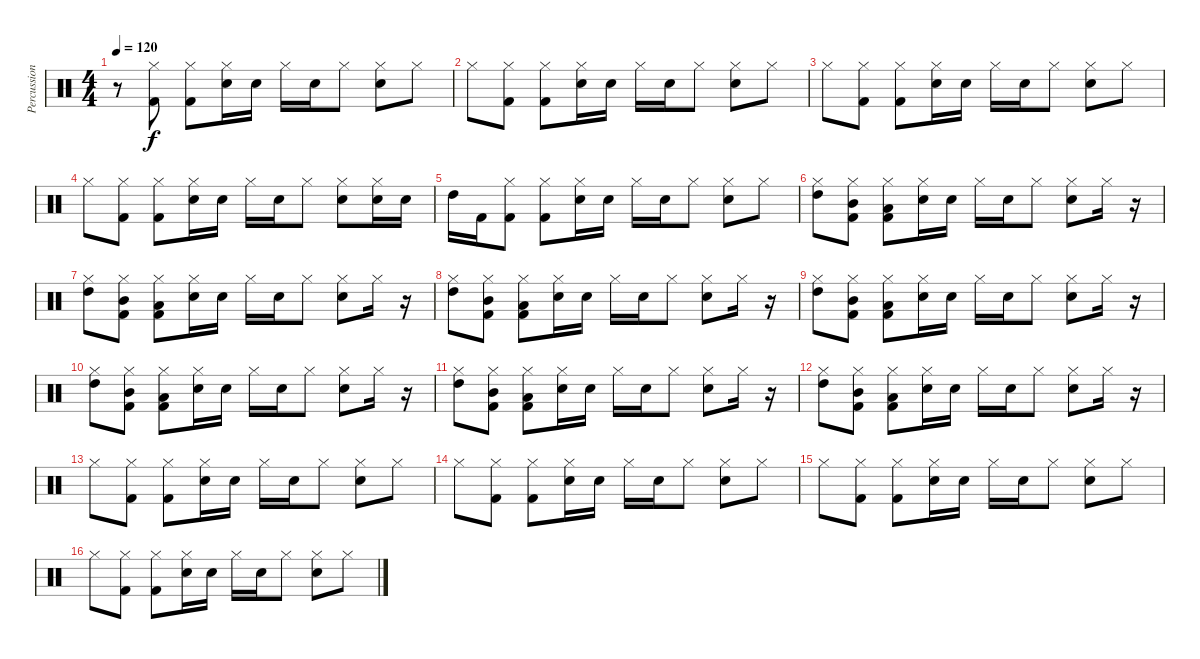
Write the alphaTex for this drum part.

\track ("Percussion" "Percussion") {instrument percussion}
\staff {score}
\articulation defaults
\ts (4 4)
\tempo 120
\clef neutral
\ks c
r.8{dy f} ("Kick (hit) 2" "Hi-Hat (closed)").8 ("Kick (hit) 2" "Hi-Hat (closed)").8 ("Electric Snare (hit)" "Hi-Hat (closed)").16 "Electric Snare (hit)".16 "Hi-Hat (closed)".16 "Electric Snare (hit)".16 "Hi-Hat (closed)".8 ("Electric Snare (hit)" "Hi-Hat (closed)").8 "Hi-Hat (closed)".8 |
"Hi-Hat (closed)".8 ("Kick (hit) 2" "Hi-Hat (closed)").8 ("Kick (hit) 2" "Hi-Hat (closed)").8 ("Electric Snare (hit)" "Hi-Hat (closed)").16 "Electric Snare (hit)".16 "Hi-Hat (closed)".16 "Electric Snare (hit)".16 "Hi-Hat (closed)".8 ("Electric Snare (hit)" "Hi-Hat (closed)").8 "Hi-Hat (closed)".8 |
"Hi-Hat (closed)".8 ("Kick (hit) 2" "Hi-Hat (closed)").8 ("Kick (hit) 2" "Hi-Hat (closed)").8 ("Electric Snare (hit)" "Hi-Hat (closed)").16 "Electric Snare (hit)".16 "Hi-Hat (closed)".16 "Electric Snare (hit)".16 "Hi-Hat (closed)".8 ("Electric Snare (hit)" "Hi-Hat (closed)").8 "Hi-Hat (closed)".8 |
"Hi-Hat (closed)".8 ("Kick (hit) 2" "Hi-Hat (closed)").8 ("Kick (hit) 2" "Hi-Hat (closed)").8 ("Electric Snare (hit)" "Hi-Hat (closed)").16 "Electric Snare (hit)".16 "Hi-Hat (closed)".16 "Electric Snare (hit)".16 "Hi-Hat (closed)".8 ("Electric Snare (hit)" "Hi-Hat (closed)").8 ("Electric Snare (hit)" "Hi-Hat (closed)").16 "Electric Snare (hit)".16 |
"High Tom (hit)".16 "Kick (hit) 2".16 ("Kick (hit) 2" "Hi-Hat (closed)").8 ("Kick (hit) 2" "Hi-Hat (closed)").8 ("Electric Snare (hit)" "Hi-Hat (closed)").16 "Electric Snare (hit)".16 "Hi-Hat (closed)".16 "Electric Snare (hit)".16 "Hi-Hat (closed)".8 ("Electric Snare (hit)" "Hi-Hat (closed)").8 "Hi-Hat (closed)".8 |
("High Tom (hit)" "Hi-Hat (closed)").8 ("Mid Tom (hit)" "Kick (hit) 2" "Hi-Hat (closed)").8 ("Low Tom (hit)" "Kick (hit) 2" "Hi-Hat (closed)").8 ("Electric Snare (hit)" "Hi-Hat (closed)").16 "Electric Snare (hit)".16 "Hi-Hat (closed)".16 "Electric Snare (hit)".16 "Hi-Hat (closed)".8 ("Electric Snare (hit)" "Hi-Hat (closed)").8 "Hi-Hat (closed)".16 r.16 |
("High Tom (hit)" "Hi-Hat (closed)").8 ("Mid Tom (hit)" "Kick (hit) 2" "Hi-Hat (closed)").8 ("Low Tom (hit)" "Kick (hit) 2" "Hi-Hat (closed)").8 ("Electric Snare (hit)" "Hi-Hat (closed)").16 "Electric Snare (hit)".16 "Hi-Hat (closed)".16 "Electric Snare (hit)".16 "Hi-Hat (closed)".8 ("Electric Snare (hit)" "Hi-Hat (closed)").8 "Hi-Hat (closed)".16 r.16 |
("High Tom (hit)" "Hi-Hat (closed)").8 ("Mid Tom (hit)" "Kick (hit) 2" "Hi-Hat (closed)").8 ("Low Tom (hit)" "Kick (hit) 2" "Hi-Hat (closed)").8 ("Electric Snare (hit)" "Hi-Hat (closed)").16 "Electric Snare (hit)".16 "Hi-Hat (closed)".16 "Electric Snare (hit)".16 "Hi-Hat (closed)".8 ("Electric Snare (hit)" "Hi-Hat (closed)").8 "Hi-Hat (closed)".16 r.16 |
("High Tom (hit)" "Hi-Hat (closed)").8 ("Mid Tom (hit)" "Kick (hit) 2" "Hi-Hat (closed)").8 ("Low Tom (hit)" "Kick (hit) 2" "Hi-Hat (closed)").8 ("Electric Snare (hit)" "Hi-Hat (closed)").16 "Electric Snare (hit)".16 "Hi-Hat (closed)".16 "Electric Snare (hit)".16 "Hi-Hat (closed)".8 ("Electric Snare (hit)" "Hi-Hat (closed)").8 "Hi-Hat (closed)".16 r.16 |
("High Tom (hit)" "Hi-Hat (closed)").8 ("Mid Tom (hit)" "Kick (hit) 2" "Hi-Hat (closed)").8 ("Low Tom (hit)" "Kick (hit) 2" "Hi-Hat (closed)").8 ("Electric Snare (hit)" "Hi-Hat (closed)").16 "Electric Snare (hit)".16 "Hi-Hat (closed)".16 "Electric Snare (hit)".16 "Hi-Hat (closed)".8 ("Electric Snare (hit)" "Hi-Hat (closed)").8 "Hi-Hat (closed)".16 r.16 |
("High Tom (hit)" "Hi-Hat (closed)").8 ("Mid Tom (hit)" "Kick (hit) 2" "Hi-Hat (closed)").8 ("Low Tom (hit)" "Kick (hit) 2" "Hi-Hat (closed)").8 ("Electric Snare (hit)" "Hi-Hat (closed)").16 "Electric Snare (hit)".16 "Hi-Hat (closed)".16 "Electric Snare (hit)".16 "Hi-Hat (closed)".8 ("Electric Snare (hit)" "Hi-Hat (closed)").8 "Hi-Hat (closed)".16 r.16 |
("High Tom (hit)" "Hi-Hat (closed)").8 ("Mid Tom (hit)" "Kick (hit) 2" "Hi-Hat (closed)").8 ("Low Tom (hit)" "Kick (hit) 2" "Hi-Hat (closed)").8 ("Electric Snare (hit)" "Hi-Hat (closed)").16 "Electric Snare (hit)".16 "Hi-Hat (closed)".16 "Electric Snare (hit)".16 "Hi-Hat (closed)".8 ("Electric Snare (hit)" "Hi-Hat (closed)").8 "Hi-Hat (closed)".16 r.16 |
"Hi-Hat (closed)".8 ("Kick (hit) 2" "Hi-Hat (closed)").8 ("Kick (hit) 2" "Hi-Hat (closed)").8 ("Electric Snare (hit)" "Hi-Hat (closed)").16 "Electric Snare (hit)".16 "Hi-Hat (closed)".16 "Electric Snare (hit)".16 "Hi-Hat (closed)".8 ("Electric Snare (hit)" "Hi-Hat (closed)").8 "Hi-Hat (closed)".8 |
"Hi-Hat (closed)".8 ("Kick (hit) 2" "Hi-Hat (closed)").8 ("Kick (hit) 2" "Hi-Hat (closed)").8 ("Electric Snare (hit)" "Hi-Hat (closed)").16 "Electric Snare (hit)".16 "Hi-Hat (closed)".16 "Electric Snare (hit)".16 "Hi-Hat (closed)".8 ("Electric Snare (hit)" "Hi-Hat (closed)").8 "Hi-Hat (closed)".8 |
"Hi-Hat (closed)".8 ("Kick (hit) 2" "Hi-Hat (closed)").8 ("Kick (hit) 2" "Hi-Hat (closed)").8 ("Electric Snare (hit)" "Hi-Hat (closed)").16 "Electric Snare (hit)".16 "Hi-Hat (closed)".16 "Electric Snare (hit)".16 "Hi-Hat (closed)".8 ("Electric Snare (hit)" "Hi-Hat (closed)").8 "Hi-Hat (closed)".8 |
"Hi-Hat (closed)".8 ("Kick (hit) 2" "Hi-Hat (closed)").8 ("Kick (hit) 2" "Hi-Hat (closed)").8 ("Electric Snare (hit)" "Hi-Hat (closed)").16 "Electric Snare (hit)".16 "Hi-Hat (closed)".16 "Electric Snare (hit)".16 "Hi-Hat (closed)".8 ("Electric Snare (hit)" "Hi-Hat (closed)").8 "Hi-Hat (closed)".8
